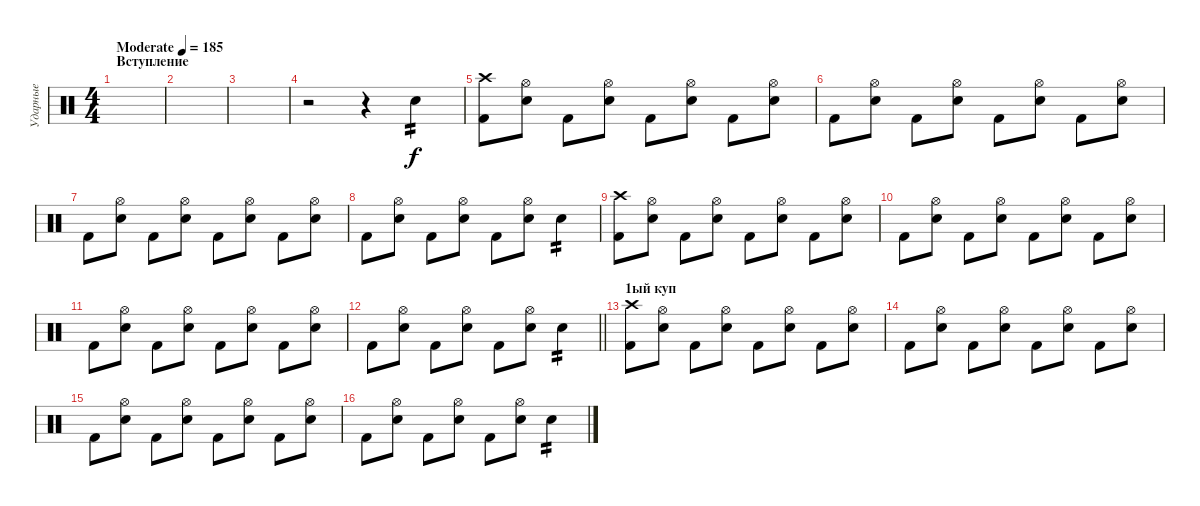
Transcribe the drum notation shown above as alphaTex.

\track ("Ударные" "Ударные") {instrument percussion}
\staff {score}
\articulation defaults
\ts (4 4)
\section ("" "Вступление")
\tempo (185 "Moderate")
\clef neutral
\ks c
|
|
|
r.2 r.4 "Electric Snare (hit)".4{tp 2} |
("Crash high (hit)" "Kick (hit) 2").8 ("Hi-Hat (open)" "Electric Snare (hit)").8 "Kick (hit) 2".8 ("Hi-Hat (open)" "Electric Snare (hit)").8 "Kick (hit) 2".8 ("Hi-Hat (open)" "Electric Snare (hit)").8 "Kick (hit) 2".8 ("Hi-Hat (open)" "Electric Snare (hit)").8 |
"Kick (hit) 2".8 ("Hi-Hat (open)" "Electric Snare (hit)").8 "Kick (hit) 2".8 ("Hi-Hat (open)" "Electric Snare (hit)").8 "Kick (hit) 2".8 ("Hi-Hat (open)" "Electric Snare (hit)").8 "Kick (hit) 2".8 ("Hi-Hat (open)" "Electric Snare (hit)").8 |
"Kick (hit) 2".8 ("Hi-Hat (open)" "Electric Snare (hit)").8 "Kick (hit) 2".8 ("Hi-Hat (open)" "Electric Snare (hit)").8 "Kick (hit) 2".8 ("Hi-Hat (open)" "Electric Snare (hit)").8 "Kick (hit) 2".8 ("Hi-Hat (open)" "Electric Snare (hit)").8 |
"Kick (hit) 2".8 ("Hi-Hat (open)" "Electric Snare (hit)").8 "Kick (hit) 2".8 ("Hi-Hat (open)" "Electric Snare (hit)").8 "Kick (hit) 2".8 ("Hi-Hat (open)" "Electric Snare (hit)").8 "Electric Snare (hit)".4{tp 2} |
("Crash high (hit)" "Kick (hit) 2").8 ("Hi-Hat (open)" "Electric Snare (hit)").8 "Kick (hit) 2".8 ("Hi-Hat (open)" "Electric Snare (hit)").8 "Kick (hit) 2".8 ("Hi-Hat (open)" "Electric Snare (hit)").8 "Kick (hit) 2".8 ("Hi-Hat (open)" "Electric Snare (hit)").8 |
"Kick (hit) 2".8 ("Hi-Hat (open)" "Electric Snare (hit)").8 "Kick (hit) 2".8 ("Hi-Hat (open)" "Electric Snare (hit)").8 "Kick (hit) 2".8 ("Hi-Hat (open)" "Electric Snare (hit)").8 "Kick (hit) 2".8 ("Hi-Hat (open)" "Electric Snare (hit)").8 |
"Kick (hit) 2".8 ("Hi-Hat (open)" "Electric Snare (hit)").8 "Kick (hit) 2".8 ("Hi-Hat (open)" "Electric Snare (hit)").8 "Kick (hit) 2".8 ("Hi-Hat (open)" "Electric Snare (hit)").8 "Kick (hit) 2".8 ("Hi-Hat (open)" "Electric Snare (hit)").8 |
\barLineRight lightlight "Kick (hit) 2".8
("Hi-Hat (open)" "Electric Snare (hit)").8 "Kick (hit) 2".8 ("Hi-Hat (open)" "Electric Snare (hit)").8 "Kick (hit) 2".8 ("Hi-Hat (open)" "Electric Snare (hit)").8 "Electric Snare (hit)".4{tp 2} |
\section ("" "1ый куп")
("Crash high (hit)" "Kick (hit) 2").8 ("Hi-Hat (open)" "Electric Snare (hit)").8 "Kick (hit) 2".8 ("Hi-Hat (open)" "Electric Snare (hit)").8 "Kick (hit) 2".8 ("Hi-Hat (open)" "Electric Snare (hit)").8 "Kick (hit) 2".8 ("Hi-Hat (open)" "Electric Snare (hit)").8 |
"Kick (hit) 2".8 ("Hi-Hat (open)" "Electric Snare (hit)").8 "Kick (hit) 2".8 ("Hi-Hat (open)" "Electric Snare (hit)").8 "Kick (hit) 2".8 ("Hi-Hat (open)" "Electric Snare (hit)").8 "Kick (hit) 2".8 ("Hi-Hat (open)" "Electric Snare (hit)").8 |
"Kick (hit) 2".8 ("Hi-Hat (open)" "Electric Snare (hit)").8 "Kick (hit) 2".8 ("Hi-Hat (open)" "Electric Snare (hit)").8 "Kick (hit) 2".8 ("Hi-Hat (open)" "Electric Snare (hit)").8 "Kick (hit) 2".8 ("Hi-Hat (open)" "Electric Snare (hit)").8 |
"Kick (hit) 2".8 ("Hi-Hat (open)" "Electric Snare (hit)").8 "Kick (hit) 2".8 ("Hi-Hat (open)" "Electric Snare (hit)").8 "Kick (hit) 2".8 ("Hi-Hat (open)" "Electric Snare (hit)").8 "Electric Snare (hit)".4{tp 2}
